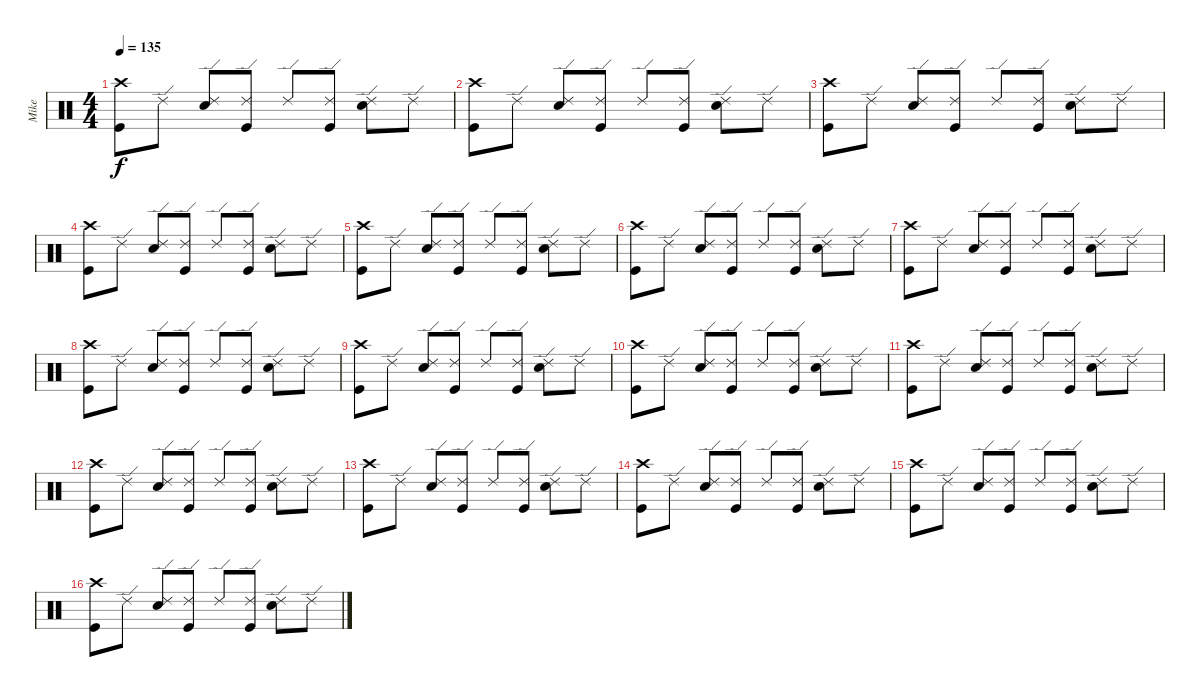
\track ("Mike" "Mike") {instrument percussion}
\staff {score}
\articulation defaults
\ts (4 4)
\tempo 135
\clef neutral
\ks c
("Crash high (hit)" "Kick (hit)").8{dy f} "Ride (edge) 2".8 ("Ride (edge) 2" "Electric Snare (hit)").8 ("Ride (edge) 2" "Kick (hit)").8 "Ride (edge) 2".8 ("Ride (edge) 2" "Kick (hit)").8 ("Ride (edge) 2" "Electric Snare (hit)").8 "Ride (edge) 2".8 |
("Crash high (hit)" "Kick (hit)").8 "Ride (edge) 2".8 ("Ride (edge) 2" "Electric Snare (hit)").8 ("Ride (edge) 2" "Kick (hit)").8 "Ride (edge) 2".8 ("Ride (edge) 2" "Kick (hit)").8 ("Ride (edge) 2" "Electric Snare (hit)").8 "Ride (edge) 2".8 |
("Crash high (hit)" "Kick (hit)").8 "Ride (edge) 2".8 ("Ride (edge) 2" "Electric Snare (hit)").8 ("Ride (edge) 2" "Kick (hit)").8 "Ride (edge) 2".8 ("Ride (edge) 2" "Kick (hit)").8 ("Ride (edge) 2" "Electric Snare (hit)").8 "Ride (edge) 2".8 |
("Crash high (hit)" "Kick (hit)").8 "Ride (edge) 2".8 ("Ride (edge) 2" "Electric Snare (hit)").8 ("Ride (edge) 2" "Kick (hit)").8 "Ride (edge) 2".8 ("Ride (edge) 2" "Kick (hit)").8 ("Ride (edge) 2" "Electric Snare (hit)").8 "Ride (edge) 2".8 |
("Crash high (hit)" "Kick (hit)").8 "Ride (edge) 2".8 ("Ride (edge) 2" "Electric Snare (hit)").8 ("Ride (edge) 2" "Kick (hit)").8 "Ride (edge) 2".8 ("Ride (edge) 2" "Kick (hit)").8 ("Ride (edge) 2" "Electric Snare (hit)").8 "Ride (edge) 2".8 |
("Crash high (hit)" "Kick (hit)").8 "Ride (edge) 2".8 ("Ride (edge) 2" "Electric Snare (hit)").8 ("Ride (edge) 2" "Kick (hit)").8 "Ride (edge) 2".8 ("Ride (edge) 2" "Kick (hit)").8 ("Ride (edge) 2" "Electric Snare (hit)").8 "Ride (edge) 2".8 |
("Crash high (hit)" "Kick (hit)").8 "Ride (edge) 2".8 ("Ride (edge) 2" "Electric Snare (hit)").8 ("Ride (edge) 2" "Kick (hit)").8 "Ride (edge) 2".8 ("Ride (edge) 2" "Kick (hit)").8 ("Ride (edge) 2" "Electric Snare (hit)").8 "Ride (edge) 2".8 |
("Crash high (hit)" "Kick (hit)").8 "Ride (edge) 2".8 ("Ride (edge) 2" "Electric Snare (hit)").8 ("Ride (edge) 2" "Kick (hit)").8 "Ride (edge) 2".8 ("Ride (edge) 2" "Kick (hit)").8 ("Ride (edge) 2" "Electric Snare (hit)").8 "Ride (edge) 2".8 |
("Crash high (hit)" "Kick (hit)").8 "Ride (edge) 2".8 ("Ride (edge) 2" "Electric Snare (hit)").8 ("Ride (edge) 2" "Kick (hit)").8 "Ride (edge) 2".8 ("Ride (edge) 2" "Kick (hit)").8 ("Ride (edge) 2" "Electric Snare (hit)").8 "Ride (edge) 2".8 |
("Crash high (hit)" "Kick (hit)").8 "Ride (edge) 2".8 ("Ride (edge) 2" "Electric Snare (hit)").8 ("Ride (edge) 2" "Kick (hit)").8 "Ride (edge) 2".8 ("Ride (edge) 2" "Kick (hit)").8 ("Ride (edge) 2" "Electric Snare (hit)").8 "Ride (edge) 2".8 |
("Crash high (hit)" "Kick (hit)").8 "Ride (edge) 2".8 ("Ride (edge) 2" "Electric Snare (hit)").8 ("Ride (edge) 2" "Kick (hit)").8 "Ride (edge) 2".8 ("Ride (edge) 2" "Kick (hit)").8 ("Ride (edge) 2" "Electric Snare (hit)").8 "Ride (edge) 2".8 |
("Crash high (hit)" "Kick (hit)").8 "Ride (edge) 2".8 ("Ride (edge) 2" "Electric Snare (hit)").8 ("Ride (edge) 2" "Kick (hit)").8 "Ride (edge) 2".8 ("Ride (edge) 2" "Kick (hit)").8 ("Ride (edge) 2" "Electric Snare (hit)").8 "Ride (edge) 2".8 |
("Crash high (hit)" "Kick (hit)").8 "Ride (edge) 2".8 ("Ride (edge) 2" "Electric Snare (hit)").8 ("Ride (edge) 2" "Kick (hit)").8 "Ride (edge) 2".8 ("Ride (edge) 2" "Kick (hit)").8 ("Ride (edge) 2" "Electric Snare (hit)").8 "Ride (edge) 2".8 |
("Crash high (hit)" "Kick (hit)").8 "Ride (edge) 2".8 ("Ride (edge) 2" "Electric Snare (hit)").8 ("Ride (edge) 2" "Kick (hit)").8 "Ride (edge) 2".8 ("Ride (edge) 2" "Kick (hit)").8 ("Ride (edge) 2" "Electric Snare (hit)").8 "Ride (edge) 2".8 |
("Crash high (hit)" "Kick (hit)").8 "Ride (edge) 2".8 ("Ride (edge) 2" "Electric Snare (hit)").8 ("Ride (edge) 2" "Kick (hit)").8 "Ride (edge) 2".8 ("Ride (edge) 2" "Kick (hit)").8 ("Ride (edge) 2" "Electric Snare (hit)").8 "Ride (edge) 2".8 |
("Crash high (hit)" "Kick (hit)").8 "Ride (edge) 2".8 ("Ride (edge) 2" "Electric Snare (hit)").8 ("Ride (edge) 2" "Kick (hit)").8 "Ride (edge) 2".8 ("Ride (edge) 2" "Kick (hit)").8 ("Ride (edge) 2" "Electric Snare (hit)").8 "Ride (edge) 2".8
